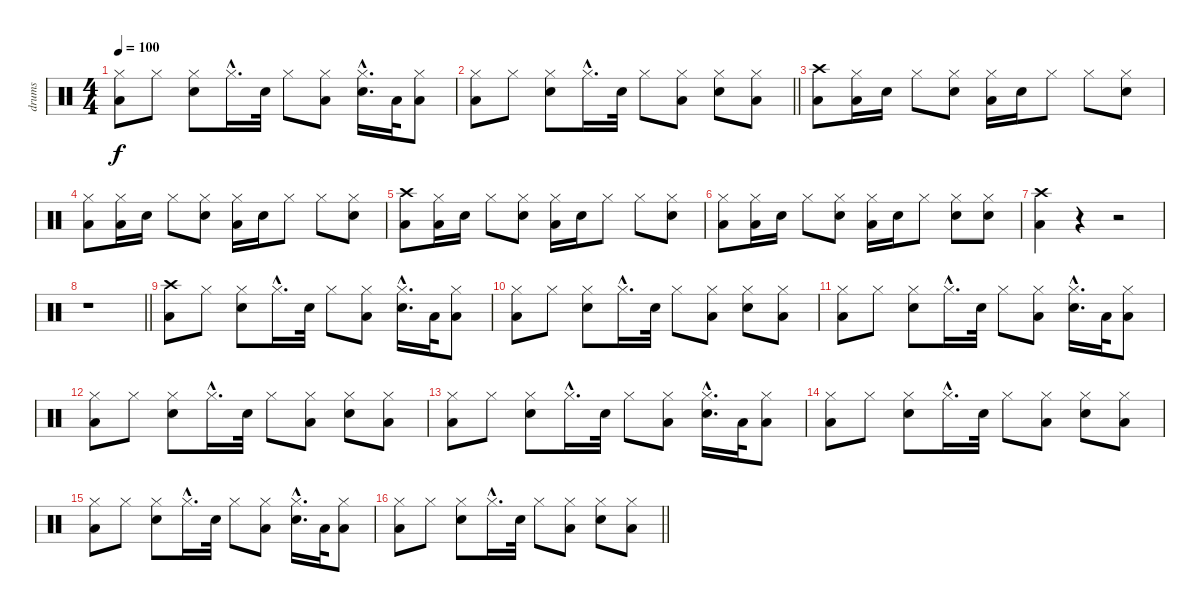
\track ("drums" "drums") {instrument percussion}
\staff {score}
\articulation defaults
\ts (4 4)
\tempo 100
\clef neutral
\ks c
("Hi-Hat (closed)" "Low Floor Tom (hit)").8{dy f} "Hi-Hat (closed)".8 ("Hi-Hat (closed)" "Electric Snare (hit)").8 "Hi-Hat (closed)"{hac}.16{d} "Electric Snare (hit)".32 "Hi-Hat (closed)".8 ("Hi-Hat (closed)" "Low Floor Tom (hit)").8 ("Hi-Hat (closed)"{hac} "Electric Snare (hit)"{hac}).16{d} "Low Floor Tom (hit)".32 ("Hi-Hat (closed)" "Low Floor Tom (hit)").8 |
\barLineRight lightlight
("Hi-Hat (closed)" "Low Floor Tom (hit)").8 "Hi-Hat (closed)".8 ("Hi-Hat (closed)" "Electric Snare (hit)").8 "Hi-Hat (closed)"{hac}.16{d} "Electric Snare (hit)".32 "Hi-Hat (closed)".8 ("Hi-Hat (closed)" "Low Floor Tom (hit)").8 ("Hi-Hat (closed)" "Electric Snare (hit)").8 ("Hi-Hat (closed)" "Low Floor Tom (hit)").8 |
("Crash high (hit)" "Low Floor Tom (hit)").8 ("Hi-Hat (closed)" "Low Floor Tom (hit)").16 "Electric Snare (hit)".16 "Hi-Hat (closed)".8 ("Hi-Hat (closed)" "Electric Snare (hit)").8 ("Hi-Hat (closed)" "Low Floor Tom (hit)").16 "Electric Snare (hit)".16 "Hi-Hat (closed)".8 "Hi-Hat (closed)".8 ("Hi-Hat (closed)" "Electric Snare (hit)").8 |
("Hi-Hat (closed)" "Low Floor Tom (hit)").8 ("Hi-Hat (closed)" "Low Floor Tom (hit)").16 "Electric Snare (hit)".16 "Hi-Hat (closed)".8 ("Hi-Hat (closed)" "Electric Snare (hit)").8 ("Hi-Hat (closed)" "Low Floor Tom (hit)").16 "Electric Snare (hit)".16 "Hi-Hat (closed)".8 "Hi-Hat (closed)".8 ("Hi-Hat (closed)" "Electric Snare (hit)").8 |
("Crash high (hit)" "Low Floor Tom (hit)").8 ("Hi-Hat (closed)" "Low Floor Tom (hit)").16 "Electric Snare (hit)".16 "Hi-Hat (closed)".8 ("Hi-Hat (closed)" "Electric Snare (hit)").8 ("Hi-Hat (closed)" "Low Floor Tom (hit)").16 "Electric Snare (hit)".16 "Hi-Hat (closed)".8 "Hi-Hat (closed)".8 ("Hi-Hat (closed)" "Electric Snare (hit)").8 |
("Hi-Hat (closed)" "Low Floor Tom (hit)").8 ("Hi-Hat (closed)" "Low Floor Tom (hit)").16 "Electric Snare (hit)".16 "Hi-Hat (closed)".8 ("Hi-Hat (closed)" "Electric Snare (hit)").8 ("Hi-Hat (closed)" "Low Floor Tom (hit)").16 "Electric Snare (hit)".16 "Hi-Hat (closed)".8 ("Hi-Hat (closed)" "Electric Snare (hit)").8 ("Hi-Hat (closed)" "Electric Snare (hit)").8 |
("Crash high (hit)" "Low Floor Tom (hit)").4 r.4 r.2 |
\barLineRight lightlight
r.1 |
("Crash high (hit)" "Low Floor Tom (hit)").8 "Hi-Hat (closed)".8 ("Hi-Hat (closed)" "Electric Snare (hit)").8 "Hi-Hat (closed)"{hac}.16{d} "Electric Snare (hit)".32 "Hi-Hat (closed)".8 ("Hi-Hat (closed)" "Low Floor Tom (hit)").8 ("Hi-Hat (closed)"{hac} "Electric Snare (hit)"{hac}).16{d} "Low Floor Tom (hit)".32 ("Hi-Hat (closed)" "Low Floor Tom (hit)").8 |
("Hi-Hat (closed)" "Low Floor Tom (hit)").8 "Hi-Hat (closed)".8 ("Hi-Hat (closed)" "Electric Snare (hit)").8 "Hi-Hat (closed)"{hac}.16{d} "Electric Snare (hit)".32 "Hi-Hat (closed)".8 ("Hi-Hat (closed)" "Low Floor Tom (hit)").8 ("Hi-Hat (closed)" "Electric Snare (hit)").8 ("Hi-Hat (closed)" "Low Floor Tom (hit)").8 |
("Hi-Hat (closed)" "Low Floor Tom (hit)").8 "Hi-Hat (closed)".8 ("Hi-Hat (closed)" "Electric Snare (hit)").8 "Hi-Hat (closed)"{hac}.16{d} "Electric Snare (hit)".32 "Hi-Hat (closed)".8 ("Hi-Hat (closed)" "Low Floor Tom (hit)").8 ("Hi-Hat (closed)"{hac} "Electric Snare (hit)"{hac}).16{d} "Low Floor Tom (hit)".32 ("Hi-Hat (closed)" "Low Floor Tom (hit)").8 |
("Hi-Hat (closed)" "Low Floor Tom (hit)").8 "Hi-Hat (closed)".8 ("Hi-Hat (closed)" "Electric Snare (hit)").8 "Hi-Hat (closed)"{hac}.16{d} "Electric Snare (hit)".32 "Hi-Hat (closed)".8 ("Hi-Hat (closed)" "Low Floor Tom (hit)").8 ("Hi-Hat (closed)" "Electric Snare (hit)").8 ("Hi-Hat (closed)" "Low Floor Tom (hit)").8 |
("Hi-Hat (closed)" "Low Floor Tom (hit)").8 "Hi-Hat (closed)".8 ("Hi-Hat (closed)" "Electric Snare (hit)").8 "Hi-Hat (closed)"{hac}.16{d} "Electric Snare (hit)".32 "Hi-Hat (closed)".8 ("Hi-Hat (closed)" "Low Floor Tom (hit)").8 ("Hi-Hat (closed)"{hac} "Electric Snare (hit)"{hac}).16{d} "Low Floor Tom (hit)".32 ("Hi-Hat (closed)" "Low Floor Tom (hit)").8 |
("Hi-Hat (closed)" "Low Floor Tom (hit)").8 "Hi-Hat (closed)".8 ("Hi-Hat (closed)" "Electric Snare (hit)").8 "Hi-Hat (closed)"{hac}.16{d} "Electric Snare (hit)".32 "Hi-Hat (closed)".8 ("Hi-Hat (closed)" "Low Floor Tom (hit)").8 ("Hi-Hat (closed)" "Electric Snare (hit)").8 ("Hi-Hat (closed)" "Low Floor Tom (hit)").8 |
("Hi-Hat (closed)" "Low Floor Tom (hit)").8 "Hi-Hat (closed)".8 ("Hi-Hat (closed)" "Electric Snare (hit)").8 "Hi-Hat (closed)"{hac}.16{d} "Electric Snare (hit)".32 "Hi-Hat (closed)".8 ("Hi-Hat (closed)" "Low Floor Tom (hit)").8 ("Hi-Hat (closed)"{hac} "Electric Snare (hit)"{hac}).16{d} "Low Floor Tom (hit)".32 ("Hi-Hat (closed)" "Low Floor Tom (hit)").8 |
\barLineRight lightlight
("Hi-Hat (closed)" "Low Floor Tom (hit)").8 "Hi-Hat (closed)".8 ("Hi-Hat (closed)" "Electric Snare (hit)").8 "Hi-Hat (closed)"{hac}.16{d} "Electric Snare (hit)".32 "Hi-Hat (closed)".8 ("Hi-Hat (closed)" "Low Floor Tom (hit)").8 ("Hi-Hat (closed)" "Electric Snare (hit)").8 ("Hi-Hat (closed)" "Low Floor Tom (hit)").8
